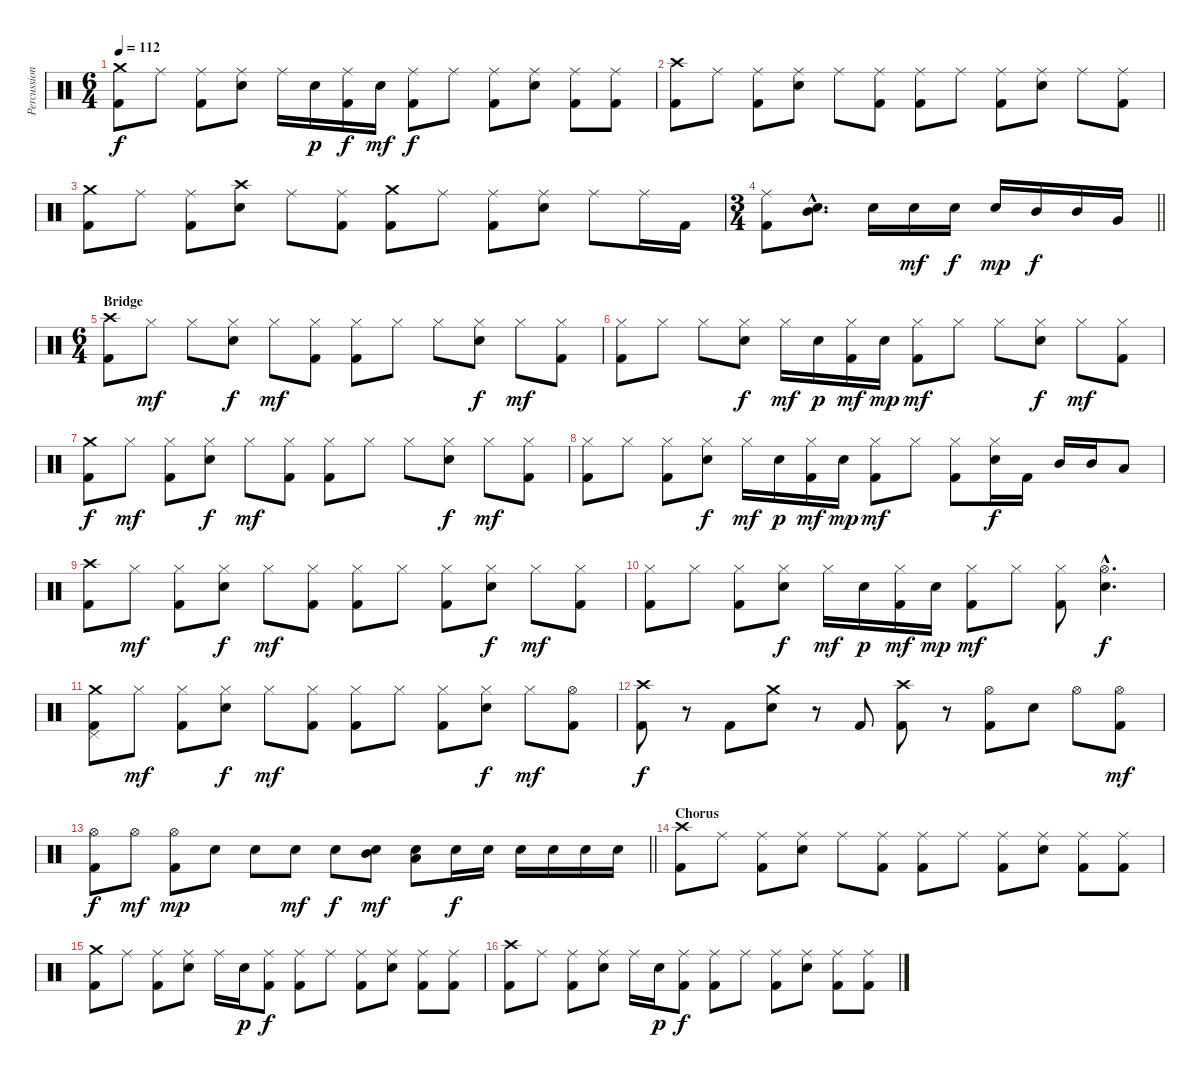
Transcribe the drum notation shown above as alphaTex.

\track ("Percussion" "Percussion") {instrument percussion}
\staff {score}
\articulation defaults
\ts (6 4)
\tempo 112
\clef neutral
\ks c
("Crash medium (hit)" "Kick (hit) 2").8{dy f} "Ride (middle)".8 ("Ride (middle)" "Kick (hit) 2").8 ("Ride (middle)" "Snare (hit) 2").8 "Ride (middle)".16 "Snare (hit) 2".16{dy p} ("Ride (middle)" "Kick (hit) 2").16{dy f} "Snare (hit) 2".16{dy mf} ("Ride (middle)" "Kick (hit) 2").8{dy f} "Ride (middle)".8 ("Ride (middle)" "Kick (hit) 2").8 ("Ride (middle)" "Snare (hit) 2").8 ("Ride (middle)" "Kick (hit) 2").8 ("Ride (middle)" "Kick (hit) 2").8 |
("Crash high (hit)" "Kick (hit) 2").8 "Ride (middle)".8 ("Ride (middle)" "Kick (hit) 2").8 ("Ride (middle)" "Snare (hit) 2").8 "Ride (middle)".8 ("Ride (middle)" "Kick (hit) 2").8 ("Ride (middle)" "Kick (hit) 2").8 "Ride (middle)".8 ("Ride (middle)" "Kick (hit) 2").8 ("Ride (middle)" "Snare (hit) 2").8 "Ride (middle)".8 ("Ride (middle)" "Kick (hit) 2").8 |
("Crash medium (hit)" "Kick (hit) 2").8 "Ride (middle)".8 ("Ride (middle)" "Kick (hit) 2").8 ("Crash high (hit)" "Snare (hit) 2").8 "Ride (middle)".8 ("Ride (middle)" "Kick (hit) 2").8 ("Crash medium (hit)" "Kick (hit) 2").8 "Ride (middle)".8 ("Ride (middle)" "Kick (hit) 2").8 ("Ride (middle)" "Snare (hit) 2").8 "Ride (middle)".8 "Ride (middle)".16 "Kick (hit) 2".16 |
\ts (3 4)
\barLineRight lightlight
("Ride (middle)" "Kick (hit) 2").8 ("Snare (hit) 2"{hac} "Mid Tom (hit)"{hac}).8{d} "Snare (hit) 2".16 "Snare (hit) 2".16{dy mf} "Snare (hit) 2".16{dy f} "Snare (hit) 2".16{dy mp} "Mid Tom (hit)".16{dy f} "Mid Tom (hit)".16 "Very Low Tom (hit)".16 |
\ts (6 4)
\section ("" "Bridge")
("Crash high (hit)" "Kick (hit) 2").8 "Hi-Hat (closed)".8{dy mf} "Hi-Hat (closed)".8 ("Hi-Hat (closed)" "Snare (hit) 2").8{dy f} "Hi-Hat (closed)".8{dy mf} ("Hi-Hat (closed)" "Kick (hit) 2").8 ("Hi-Hat (closed)" "Kick (hit) 2").8 "Hi-Hat (closed)".8 "Hi-Hat (closed)".8 ("Hi-Hat (closed)" "Snare (hit) 2").8{dy f} "Hi-Hat (closed)".8{dy mf} ("Hi-Hat (closed)" "Kick (hit) 2").8 |
("Hi-Hat (closed)" "Kick (hit) 2").8 "Hi-Hat (closed)".8 "Hi-Hat (closed)".8 ("Hi-Hat (closed)" "Snare (hit) 2").8{dy f} "Hi-Hat (closed)".16{dy mf} "Snare (hit) 2".16{dy p} ("Hi-Hat (closed)" "Kick (hit) 2").16{dy mf} "Snare (hit) 2".16{dy mp} ("Hi-Hat (closed)" "Kick (hit) 2").8{dy mf} "Hi-Hat (closed)".8 "Hi-Hat (closed)".8 ("Hi-Hat (closed)" "Snare (hit) 2").8{dy f} "Hi-Hat (closed)".8{dy mf} ("Hi-Hat (closed)" "Kick (hit) 2").8 |
("Crash medium (hit)" "Kick (hit) 2").8{dy f} "Hi-Hat (closed)".8{dy mf} ("Hi-Hat (closed)" "Kick (hit) 2").8 ("Hi-Hat (closed)" "Snare (hit) 2").8{dy f} "Hi-Hat (closed)".8{dy mf} ("Hi-Hat (closed)" "Kick (hit) 2").8 ("Hi-Hat (closed)" "Kick (hit) 2").8 "Hi-Hat (closed)".8 "Hi-Hat (closed)".8 ("Hi-Hat (closed)" "Snare (hit) 2").8{dy f} "Hi-Hat (closed)".8{dy mf} ("Hi-Hat (closed)" "Kick (hit) 2").8 |
("Hi-Hat (closed)" "Kick (hit) 2").8 "Hi-Hat (closed)".8 ("Hi-Hat (closed)" "Kick (hit) 2").8 ("Hi-Hat (closed)" "Snare (hit) 2").8{dy f} "Hi-Hat (closed)".16{dy mf} "Snare (hit) 2".16{dy p} ("Hi-Hat (closed)" "Kick (hit) 2").16{dy mf} "Snare (hit) 2".16{dy mp} ("Hi-Hat (closed)" "Kick (hit) 2").8{dy mf} "Hi-Hat (closed)".8 ("Hi-Hat (closed)" "Kick (hit) 2").8 ("Hi-Hat (closed)" "Snare (hit) 2").16{dy f} "Kick (hit) 2".16 "Mid Tom (hit)".16 "Mid Tom (hit)".16 "Low Tom (hit)".8 |
("Crash high (hit)" "Kick (hit) 2").8 "Hi-Hat (closed)".8{dy mf} ("Hi-Hat (closed)" "Kick (hit) 2").8 ("Hi-Hat (closed)" "Snare (hit) 2").8{dy f} "Hi-Hat (closed)".8{dy mf} ("Hi-Hat (closed)" "Kick (hit) 2").8 ("Hi-Hat (closed)" "Kick (hit) 2").8 "Hi-Hat (closed)".8 ("Hi-Hat (closed)" "Kick (hit) 2").8 ("Hi-Hat (closed)" "Snare (hit) 2").8{dy f} "Hi-Hat (closed)".8{dy mf} ("Hi-Hat (closed)" "Kick (hit) 2").8 |
("Hi-Hat (closed)" "Kick (hit) 2").8 "Hi-Hat (closed)".8 ("Hi-Hat (closed)" "Kick (hit) 2").8 ("Hi-Hat (closed)" "Snare (hit) 2").8{dy f} "Hi-Hat (closed)".16{dy mf} "Snare (hit) 2".16{dy p} ("Hi-Hat (closed)" "Kick (hit) 2").16{dy mf} "Snare (hit) 2".16{dy mp} ("Hi-Hat (closed)" "Kick (hit) 2").8{dy mf} "Hi-Hat (closed)".8 ("Hi-Hat (closed)" "Kick (hit) 2").8 ("Hi-Hat (open)"{hac} "Snare (hit) 2"{hac}).4{d dy f} |
("Crash medium (hit)" "Pedal Hi-Hat (hit)" "Kick (hit) 2").8 "Hi-Hat (closed)".8{dy mf} ("Hi-Hat (closed)" "Kick (hit) 2").8 ("Hi-Hat (closed)" "Snare (hit) 2").8{dy f} "Hi-Hat (closed)".8{dy mf} ("Hi-Hat (closed)" "Kick (hit) 2").8 ("Hi-Hat (closed)" "Kick (hit) 2").8 "Hi-Hat (closed)".8 ("Hi-Hat (closed)" "Kick (hit) 2").8 ("Hi-Hat (closed)" "Snare (hit) 2").8{dy f} "Hi-Hat (closed)".8{dy mf} ("Hi-Hat (open)" "Kick (hit) 2").8 |
("Crash high (hit)" "Kick (hit) 2").8{dy f} r.8 "Kick (hit) 2".8 ("Crash medium (hit)" "Snare (hit) 2").8 r.8 "Kick (hit) 2".8 ("Crash high (hit)" "Kick (hit) 2").8 r.8 ("Hi-Hat (open)" "Kick (hit) 2").8 "Snare (hit) 2".8 "Hi-Hat (open)".8 ("Hi-Hat (open)" "Kick (hit) 2").8{dy mf} |
\barLineRight lightlight
("Hi-Hat (open)" "Kick (hit) 2").8{dy f} "Hi-Hat (open)".8{dy mf} ("Hi-Hat (open)" "Kick (hit) 2").8{dy mp} "Snare (hit) 2".8 "Snare (hit) 2".8 "Snare (hit) 2".8{dy mf} "Snare (hit) 2".8{dy f} ("Mid Tom (hit)" "Snare (hit) 2").8{dy mf} ("Low Tom (hit)" "Snare (hit) 2").8 "Snare (hit) 2".16{dy f} "Snare (hit) 2".16 "Snare (hit) 2".16 "Snare (hit) 2".16 "Snare (hit) 2".16 "Snare (hit) 2".16 |
\section ("" "Chorus")
("Crash high (hit)" "Kick (hit) 2").8 "Ride (middle)".8 ("Ride (middle)" "Kick (hit) 2").8 ("Ride (middle)" "Snare (hit) 2").8 "Ride (middle)".8 ("Ride (middle)" "Kick (hit) 2").8 ("Ride (middle)" "Kick (hit) 2").8 "Ride (middle)".8 ("Ride (middle)" "Kick (hit) 2").8 ("Ride (middle)" "Snare (hit) 2").8 ("Ride (middle)" "Kick (hit) 2").8 ("Ride (middle)" "Kick (hit) 2").8 |
("Crash medium (hit)" "Kick (hit) 2").8 "Ride (middle)".8 ("Ride (middle)" "Kick (hit) 2").8 ("Ride (middle)" "Snare (hit) 2").8 "Ride (middle)".16 "Snare (hit) 2".16{dy p} ("Ride (middle)" "Kick (hit) 2").8{dy f} ("Ride (middle)" "Kick (hit) 2").8 "Ride (middle)".8 ("Ride (middle)" "Kick (hit) 2").8 ("Ride (middle)" "Snare (hit) 2").8 ("Ride (middle)" "Kick (hit) 2").8 ("Ride (middle)" "Kick (hit) 2").8 |
("Crash high (hit)" "Kick (hit) 2").8 "Ride (middle)".8 ("Ride (middle)" "Kick (hit) 2").8 ("Ride (middle)" "Snare (hit) 2").8 "Ride (middle)".16 "Snare (hit) 2".16{dy p} ("Ride (middle)" "Kick (hit) 2").8{dy f} ("Ride (middle)" "Kick (hit) 2").8 "Ride (middle)".8 ("Ride (middle)" "Kick (hit) 2").8 ("Ride (middle)" "Snare (hit) 2").8 ("Ride (middle)" "Kick (hit) 2").8 ("Ride (middle)" "Kick (hit) 2").8
